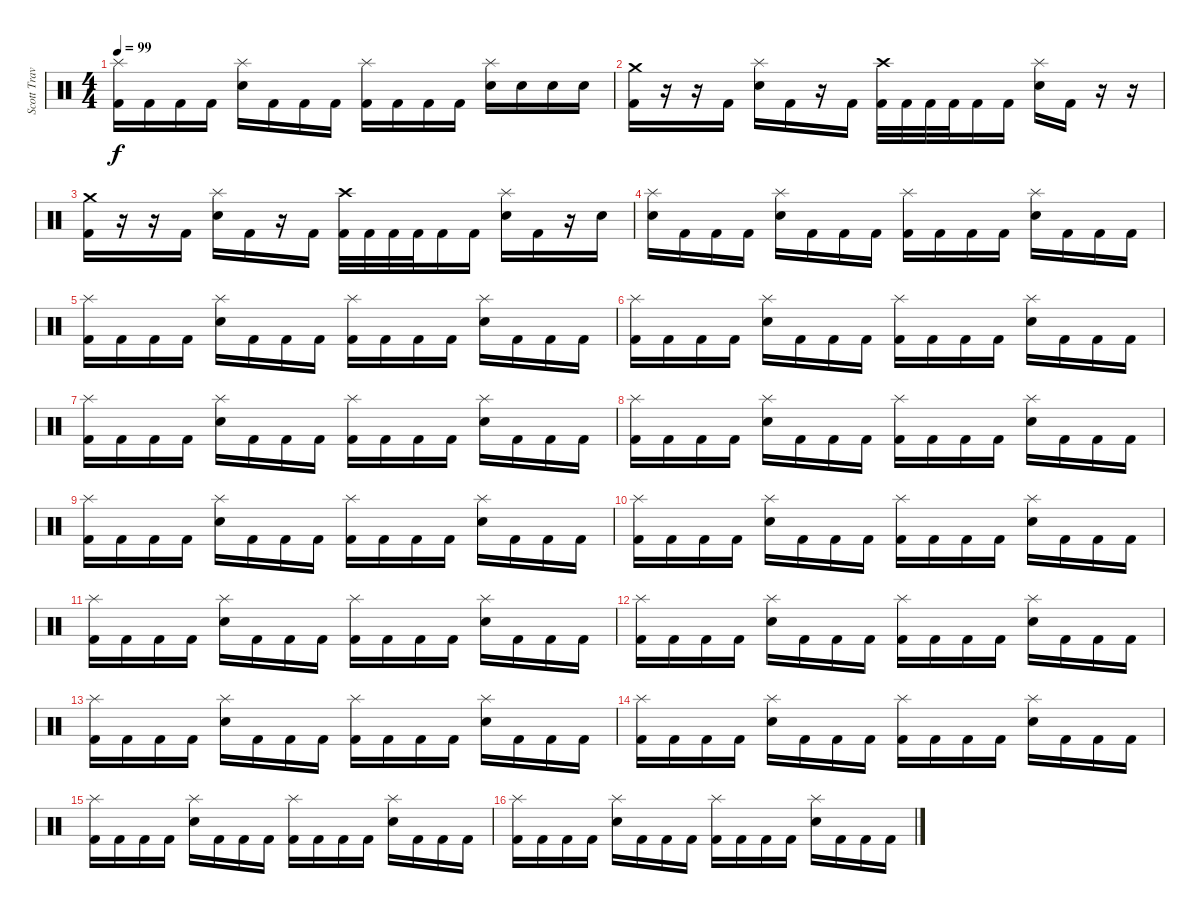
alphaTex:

\track ("Scott Travis" "Scott Trav") {instrument percussion}
\staff {score}
\articulation defaults
\ts (4 4)
\tempo 99
\clef neutral
\ks c
("Splash (hit)" "Kick (hit) 2").16{dy f} "Kick (hit) 2".16 "Kick (hit) 2".16 "Kick (hit) 2".16 ("Splash (hit)" "Electric Snare (hit)").16 "Kick (hit) 2".16 "Kick (hit) 2".16 "Kick (hit) 2".16 ("Splash (hit)" "Kick (hit) 2").16 "Kick (hit) 2".16 "Kick (hit) 2".16 "Kick (hit) 2".16 ("Splash (hit)" "Electric Snare (hit)").16 "Electric Snare (hit)".16 "Electric Snare (hit)".16 "Electric Snare (hit)".16 |
("Crash medium (hit)" "Kick (hit) 2").16 r.16 r.16 "Kick (hit) 2".16 ("Splash (hit)" "Electric Snare (hit)").16 "Kick (hit) 2".16 r.16 "Kick (hit) 2".16 ("Crash high (hit)" "Kick (hit) 2").32 "Kick (hit) 2".32 "Kick (hit) 2".32 "Kick (hit) 2".32 "Kick (hit) 2".16 "Kick (hit) 2".16 ("Splash (hit)" "Electric Snare (hit)").16 "Kick (hit) 2".16 r.16 r.16 |
("Crash medium (hit)" "Kick (hit) 2").16 r.16 r.16 "Kick (hit) 2".16 ("Splash (hit)" "Electric Snare (hit)").16 "Kick (hit) 2".16 r.16 "Kick (hit) 2".16 ("Crash high (hit)" "Kick (hit) 2").32 "Kick (hit) 2".32 "Kick (hit) 2".32 "Kick (hit) 2".32 "Kick (hit) 2".16 "Kick (hit) 2".16 ("Splash (hit)" "Electric Snare (hit)").16 "Kick (hit) 2".16 r.16 "Electric Snare (hit)".16 |
("Splash (hit)" "Electric Snare (hit)").16 "Kick (hit) 2".16 "Kick (hit) 2".16 "Kick (hit) 2".16 ("Splash (hit)" "Electric Snare (hit)").16 "Kick (hit) 2".16 "Kick (hit) 2".16 "Kick (hit) 2".16 ("Splash (hit)" "Kick (hit) 2").16 "Kick (hit) 2".16 "Kick (hit) 2".16 "Kick (hit) 2".16 ("Splash (hit)" "Electric Snare (hit)").16 "Kick (hit) 2".16 "Kick (hit) 2".16 "Kick (hit) 2".16 |
("Splash (hit)" "Kick (hit) 2").16 "Kick (hit) 2".16 "Kick (hit) 2".16 "Kick (hit) 2".16 ("Splash (hit)" "Electric Snare (hit)").16 "Kick (hit) 2".16 "Kick (hit) 2".16 "Kick (hit) 2".16 ("Splash (hit)" "Kick (hit) 2").16 "Kick (hit) 2".16 "Kick (hit) 2".16 "Kick (hit) 2".16 ("Splash (hit)" "Electric Snare (hit)").16 "Kick (hit) 2".16 "Kick (hit) 2".16 "Kick (hit) 2".16 |
("Splash (hit)" "Kick (hit) 2").16 "Kick (hit) 2".16 "Kick (hit) 2".16 "Kick (hit) 2".16 ("Splash (hit)" "Electric Snare (hit)").16 "Kick (hit) 2".16 "Kick (hit) 2".16 "Kick (hit) 2".16 ("Splash (hit)" "Kick (hit) 2").16 "Kick (hit) 2".16 "Kick (hit) 2".16 "Kick (hit) 2".16 ("Splash (hit)" "Electric Snare (hit)").16 "Kick (hit) 2".16 "Kick (hit) 2".16 "Kick (hit) 2".16 |
("Splash (hit)" "Kick (hit) 2").16 "Kick (hit) 2".16 "Kick (hit) 2".16 "Kick (hit) 2".16 ("Splash (hit)" "Electric Snare (hit)").16 "Kick (hit) 2".16 "Kick (hit) 2".16 "Kick (hit) 2".16 ("Splash (hit)" "Kick (hit) 2").16 "Kick (hit) 2".16 "Kick (hit) 2".16 "Kick (hit) 2".16 ("Splash (hit)" "Electric Snare (hit)").16 "Kick (hit) 2".16 "Kick (hit) 2".16 "Kick (hit) 2".16 |
("Splash (hit)" "Kick (hit) 2").16 "Kick (hit) 2".16 "Kick (hit) 2".16 "Kick (hit) 2".16 ("Splash (hit)" "Electric Snare (hit)").16 "Kick (hit) 2".16 "Kick (hit) 2".16 "Kick (hit) 2".16 ("Splash (hit)" "Kick (hit) 2").16 "Kick (hit) 2".16 "Kick (hit) 2".16 "Kick (hit) 2".16 ("Splash (hit)" "Electric Snare (hit)").16 "Kick (hit) 2".16 "Kick (hit) 2".16 "Kick (hit) 2".16 |
("Splash (hit)" "Kick (hit) 2").16 "Kick (hit) 2".16 "Kick (hit) 2".16 "Kick (hit) 2".16 ("Splash (hit)" "Electric Snare (hit)").16 "Kick (hit) 2".16 "Kick (hit) 2".16 "Kick (hit) 2".16 ("Splash (hit)" "Kick (hit) 2").16 "Kick (hit) 2".16 "Kick (hit) 2".16 "Kick (hit) 2".16 ("Splash (hit)" "Electric Snare (hit)").16 "Kick (hit) 2".16 "Kick (hit) 2".16 "Kick (hit) 2".16 |
("Splash (hit)" "Kick (hit) 2").16 "Kick (hit) 2".16 "Kick (hit) 2".16 "Kick (hit) 2".16 ("Splash (hit)" "Electric Snare (hit)").16 "Kick (hit) 2".16 "Kick (hit) 2".16 "Kick (hit) 2".16 ("Splash (hit)" "Kick (hit) 2").16 "Kick (hit) 2".16 "Kick (hit) 2".16 "Kick (hit) 2".16 ("Splash (hit)" "Electric Snare (hit)").16 "Kick (hit) 2".16 "Kick (hit) 2".16 "Kick (hit) 2".16 |
("Splash (hit)" "Kick (hit) 2").16 "Kick (hit) 2".16 "Kick (hit) 2".16 "Kick (hit) 2".16 ("Splash (hit)" "Electric Snare (hit)").16 "Kick (hit) 2".16 "Kick (hit) 2".16 "Kick (hit) 2".16 ("Splash (hit)" "Kick (hit) 2").16 "Kick (hit) 2".16 "Kick (hit) 2".16 "Kick (hit) 2".16 ("Splash (hit)" "Electric Snare (hit)").16 "Kick (hit) 2".16 "Kick (hit) 2".16 "Kick (hit) 2".16 |
("Splash (hit)" "Kick (hit) 2").16 "Kick (hit) 2".16 "Kick (hit) 2".16 "Kick (hit) 2".16 ("Splash (hit)" "Electric Snare (hit)").16 "Kick (hit) 2".16 "Kick (hit) 2".16 "Kick (hit) 2".16 ("Splash (hit)" "Kick (hit) 2").16 "Kick (hit) 2".16 "Kick (hit) 2".16 "Kick (hit) 2".16 ("Splash (hit)" "Electric Snare (hit)").16 "Kick (hit) 2".16 "Kick (hit) 2".16 "Kick (hit) 2".16 |
("Splash (hit)" "Kick (hit) 2").16 "Kick (hit) 2".16 "Kick (hit) 2".16 "Kick (hit) 2".16 ("Splash (hit)" "Electric Snare (hit)").16 "Kick (hit) 2".16 "Kick (hit) 2".16 "Kick (hit) 2".16 ("Splash (hit)" "Kick (hit) 2").16 "Kick (hit) 2".16 "Kick (hit) 2".16 "Kick (hit) 2".16 ("Splash (hit)" "Electric Snare (hit)").16 "Kick (hit) 2".16 "Kick (hit) 2".16 "Kick (hit) 2".16 |
("Splash (hit)" "Kick (hit) 2").16 "Kick (hit) 2".16 "Kick (hit) 2".16 "Kick (hit) 2".16 ("Splash (hit)" "Electric Snare (hit)").16 "Kick (hit) 2".16 "Kick (hit) 2".16 "Kick (hit) 2".16 ("Splash (hit)" "Kick (hit) 2").16 "Kick (hit) 2".16 "Kick (hit) 2".16 "Kick (hit) 2".16 ("Splash (hit)" "Electric Snare (hit)").16 "Kick (hit) 2".16 "Kick (hit) 2".16 "Kick (hit) 2".16 |
("Splash (hit)" "Kick (hit) 2").16 "Kick (hit) 2".16 "Kick (hit) 2".16 "Kick (hit) 2".16 ("Splash (hit)" "Electric Snare (hit)").16 "Kick (hit) 2".16 "Kick (hit) 2".16 "Kick (hit) 2".16 ("Splash (hit)" "Kick (hit) 2").16 "Kick (hit) 2".16 "Kick (hit) 2".16 "Kick (hit) 2".16 ("Splash (hit)" "Electric Snare (hit)").16 "Kick (hit) 2".16 "Kick (hit) 2".16 "Kick (hit) 2".16 |
("Splash (hit)" "Kick (hit) 2").16 "Kick (hit) 2".16 "Kick (hit) 2".16 "Kick (hit) 2".16 ("Splash (hit)" "Electric Snare (hit)").16 "Kick (hit) 2".16 "Kick (hit) 2".16 "Kick (hit) 2".16 ("Splash (hit)" "Kick (hit) 2").16 "Kick (hit) 2".16 "Kick (hit) 2".16 "Kick (hit) 2".16 ("Splash (hit)" "Electric Snare (hit)").16 "Kick (hit) 2".16 "Kick (hit) 2".16 "Kick (hit) 2".16
